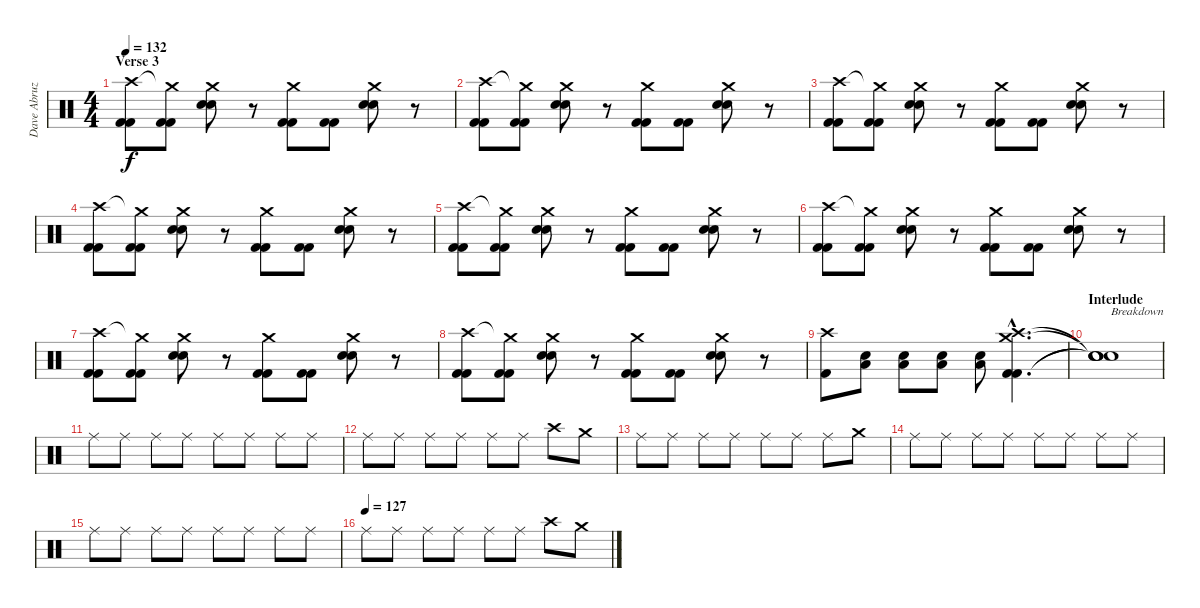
\track ("Dave Abruzzesse" "Dave Abruz") {instrument percussion}
\staff {score}
\articulation defaults
\ts (4 4)
\section ("" "Verse 3")
\tempo 132
\clef neutral
\ks c
("Crash high (hit)" "Kick (hit) 2" "Kick (hit) 2").8{dy f} ("Crash medium (hit)"{t} "Kick (hit) 2" "Kick (hit) 2").8 ("Crash medium (hit)" "Snare (hit) 2" "Snare (hit) 2").8 r.8 ("Crash medium (hit)" "Kick (hit) 2" "Kick (hit) 2").8 ("Kick (hit) 2" "Kick (hit) 2").8 ("Crash medium (hit)" "Snare (hit) 2" "Snare (hit) 2").8 r.8 |
("Crash high (hit)" "Kick (hit) 2" "Kick (hit) 2").8 ("Crash medium (hit)"{t} "Kick (hit) 2" "Kick (hit) 2").8 ("Crash medium (hit)" "Snare (hit) 2" "Snare (hit) 2").8 r.8 ("Crash medium (hit)" "Kick (hit) 2" "Kick (hit) 2").8 ("Kick (hit) 2" "Kick (hit) 2").8 ("Crash medium (hit)" "Snare (hit) 2" "Snare (hit) 2").8 r.8 |
("Crash high (hit)" "Kick (hit) 2" "Kick (hit) 2").8 ("Crash medium (hit)"{t} "Kick (hit) 2" "Kick (hit) 2").8 ("Crash medium (hit)" "Snare (hit) 2" "Snare (hit) 2").8 r.8 ("Crash medium (hit)" "Kick (hit) 2" "Kick (hit) 2").8 ("Kick (hit) 2" "Kick (hit) 2").8 ("Crash medium (hit)" "Snare (hit) 2" "Snare (hit) 2").8 r.8 |
("Crash high (hit)" "Kick (hit) 2" "Kick (hit) 2").8 ("Crash medium (hit)"{t} "Kick (hit) 2" "Kick (hit) 2").8 ("Crash medium (hit)" "Snare (hit) 2" "Snare (hit) 2").8 r.8 ("Crash medium (hit)" "Kick (hit) 2" "Kick (hit) 2").8 ("Kick (hit) 2" "Kick (hit) 2").8 ("Crash medium (hit)" "Snare (hit) 2" "Snare (hit) 2").8 r.8 |
("Crash high (hit)" "Kick (hit) 2" "Kick (hit) 2").8 ("Crash medium (hit)"{t} "Kick (hit) 2" "Kick (hit) 2").8 ("Crash medium (hit)" "Snare (hit) 2" "Snare (hit) 2").8 r.8 ("Crash medium (hit)" "Kick (hit) 2" "Kick (hit) 2").8 ("Kick (hit) 2" "Kick (hit) 2").8 ("Crash medium (hit)" "Snare (hit) 2" "Snare (hit) 2").8 r.8 |
("Crash high (hit)" "Kick (hit) 2" "Kick (hit) 2").8 ("Crash medium (hit)"{t} "Kick (hit) 2" "Kick (hit) 2").8 ("Crash medium (hit)" "Snare (hit) 2" "Snare (hit) 2").8 r.8 ("Crash medium (hit)" "Kick (hit) 2" "Kick (hit) 2").8 ("Kick (hit) 2" "Kick (hit) 2").8 ("Crash medium (hit)" "Snare (hit) 2" "Snare (hit) 2").8 r.8 |
("Crash high (hit)" "Kick (hit) 2" "Kick (hit) 2").8 ("Crash medium (hit)"{t} "Kick (hit) 2" "Kick (hit) 2").8 ("Crash medium (hit)" "Snare (hit) 2" "Snare (hit) 2").8 r.8 ("Crash medium (hit)" "Kick (hit) 2" "Kick (hit) 2").8 ("Kick (hit) 2" "Kick (hit) 2").8 ("Crash medium (hit)" "Snare (hit) 2" "Snare (hit) 2").8 r.8 |
("Crash high (hit)" "Kick (hit) 2" "Kick (hit) 2").8 ("Crash medium (hit)"{t} "Kick (hit) 2" "Kick (hit) 2").8 ("Crash medium (hit)" "Snare (hit) 2" "Snare (hit) 2").8 r.8 ("Crash medium (hit)" "Kick (hit) 2" "Kick (hit) 2").8 ("Kick (hit) 2" "Kick (hit) 2").8 ("Crash medium (hit)" "Snare (hit) 2" "Snare (hit) 2").8 r.8 |
("Crash high (hit)" "Kick (hit) 2").8 ("Snare (hit) 2" "Low Tom (hit)").8 ("Snare (hit) 2" "Low Tom (hit)").8 ("Snare (hit) 2" "Low Tom (hit)").8 ("Snare (hit) 2" "Low Tom (hit)").8 ("Crash medium (hit)"{hac} "Crash high (hit)"{hac} "Kick (hit) 2"{hac} "Kick (hit) 2"{hac}).4{d} |
\section ("" "Interlude")
("Snare (hit)"{t} "Snare (hit)"{t} "Snare (hit)"{t} "Snare (hit)"{t}).1{txt "Breakdown"} |
"Ride (middle)".8 "Ride (middle)".8 "Ride (middle)".8 "Ride (middle)".8 "Ride (middle)".8 "Ride (middle)".8 "Ride (middle)".8 "Ride (middle)".8 |
"Ride (middle)".8 "Ride (middle)".8 "Ride (middle)".8 "Ride (middle)".8 "Ride (middle)".8 "Ride (middle)".8 "Crash high (hit)".8 "Crash medium (hit)".8 |
"Ride (middle)".8 "Ride (middle)".8 "Ride (middle)".8 "Ride (middle)".8 "Ride (middle)".8 "Ride (middle)".8 "Ride (middle)".8 "Crash medium (hit)".8 |
"Ride (middle)".8 "Ride (middle)".8 "Ride (middle)".8 "Ride (middle)".8 "Ride (middle)".8 "Ride (middle)".8 "Ride (middle)".8 "Ride (middle)".8 |
"Ride (middle)".8 "Ride (middle)".8 "Ride (middle)".8 "Ride (middle)".8 "Ride (middle)".8 "Ride (middle)".8 "Ride (middle)".8 "Ride (middle)".8 |
\tempo (127)
"Ride (middle)".8 "Ride (middle)".8 "Ride (middle)".8 "Ride (middle)".8 "Ride (middle)".8 "Ride (middle)".8 "Crash high (hit)".8 "Crash medium (hit)".8
